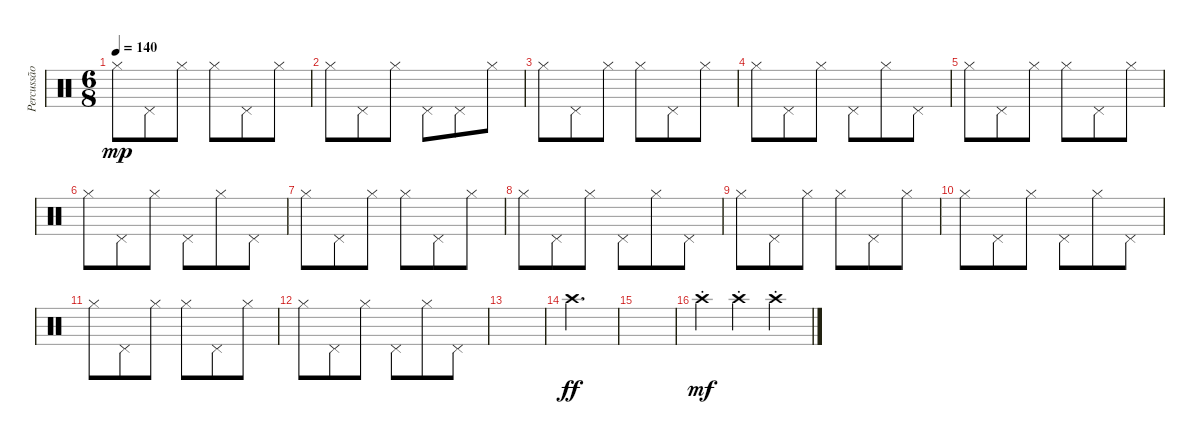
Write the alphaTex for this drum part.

\track ("Percussão" "Percussão") {instrument percussion}
\staff {score}
\articulation defaults
\ts (6 8)
\tempo 140
\clef neutral
\ks c "Hi-Hat (closed)".8{dy mp} "Pedal Hi-Hat (hit)".8 "Hi-Hat (closed)".8 "Hi-Hat (closed)".8 "Pedal Hi-Hat (hit)".8 "Hi-Hat (closed)".8
|
"Hi-Hat (closed)".8 "Pedal Hi-Hat (hit)".8 "Hi-Hat (closed)".8 "Pedal Hi-Hat (hit)".8 "Pedal Hi-Hat (hit)".8 "Hi-Hat (closed)".8 |
"Hi-Hat (closed)".8 "Pedal Hi-Hat (hit)".8 "Hi-Hat (closed)".8 "Hi-Hat (closed)".8 "Pedal Hi-Hat (hit)".8 "Hi-Hat (closed)".8 |
"Hi-Hat (closed)".8 "Pedal Hi-Hat (hit)".8 "Hi-Hat (closed)".8 "Pedal Hi-Hat (hit)".8 "Hi-Hat (closed)".8 "Pedal Hi-Hat (hit)".8 |
"Hi-Hat (closed)".8 "Pedal Hi-Hat (hit)".8 "Hi-Hat (closed)".8 "Hi-Hat (closed)".8 "Pedal Hi-Hat (hit)".8 "Hi-Hat (closed)".8 |
"Hi-Hat (closed)".8 "Pedal Hi-Hat (hit)".8 "Hi-Hat (closed)".8 "Pedal Hi-Hat (hit)".8 "Hi-Hat (closed)".8 "Pedal Hi-Hat (hit)".8 |
"Hi-Hat (closed)".8 "Pedal Hi-Hat (hit)".8 "Hi-Hat (closed)".8 "Hi-Hat (closed)".8 "Pedal Hi-Hat (hit)".8 "Hi-Hat (closed)".8 |
"Hi-Hat (closed)".8 "Pedal Hi-Hat (hit)".8 "Hi-Hat (closed)".8 "Pedal Hi-Hat (hit)".8 "Hi-Hat (closed)".8 "Pedal Hi-Hat (hit)".8 |
"Hi-Hat (closed)".8 "Pedal Hi-Hat (hit)".8 "Hi-Hat (closed)".8 "Hi-Hat (closed)".8 "Pedal Hi-Hat (hit)".8 "Hi-Hat (closed)".8 |
"Hi-Hat (closed)".8 "Pedal Hi-Hat (hit)".8 "Hi-Hat (closed)".8 "Pedal Hi-Hat (hit)".8 "Hi-Hat (closed)".8 "Pedal Hi-Hat (hit)".8 |
"Hi-Hat (closed)".8 "Pedal Hi-Hat (hit)".8 "Hi-Hat (closed)".8 "Hi-Hat (closed)".8 "Pedal Hi-Hat (hit)".8 "Hi-Hat (closed)".8 |
"Hi-Hat (closed)".8 "Pedal Hi-Hat (hit)".8 "Hi-Hat (closed)".8 "Pedal Hi-Hat (hit)".8 "Hi-Hat (closed)".8 "Pedal Hi-Hat (hit)".8 |
|
"Crash high (hit)".2{d dy ff} |
|
"Crash high (hit)"{st}.4{dy mf} "Crash high (hit)"{st}.4 "Crash high (hit)"{st}.4
